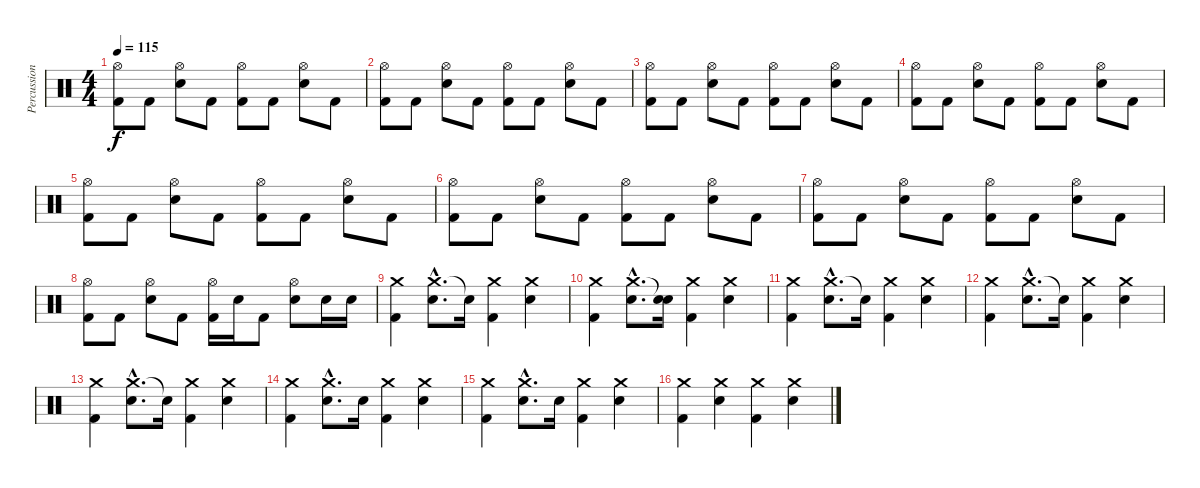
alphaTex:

\track ("Percussions" "Percussion") {instrument percussion}
\staff {score}
\articulation defaults
\ts (4 4)
\tempo 115
\clef neutral
\ks c
("Hi-Hat (open)" "Kick (hit) 2").8{dy f} "Kick (hit) 2".8 ("Hi-Hat (open)" "Electric Snare (hit)").8 "Kick (hit) 2".8 ("Hi-Hat (open)" "Kick (hit) 2").8 "Kick (hit) 2".8 ("Hi-Hat (open)" "Electric Snare (hit)").8 "Kick (hit) 2".8 |
("Hi-Hat (open)" "Kick (hit) 2").8 "Kick (hit) 2".8 ("Hi-Hat (open)" "Electric Snare (hit)").8 "Kick (hit) 2".8 ("Hi-Hat (open)" "Kick (hit) 2").8 "Kick (hit) 2".8 ("Hi-Hat (open)" "Electric Snare (hit)").8 "Kick (hit) 2".8 |
("Hi-Hat (open)" "Kick (hit) 2").8 "Kick (hit) 2".8 ("Hi-Hat (open)" "Electric Snare (hit)").8 "Kick (hit) 2".8 ("Hi-Hat (open)" "Kick (hit) 2").8 "Kick (hit) 2".8 ("Hi-Hat (open)" "Electric Snare (hit)").8 "Kick (hit) 2".8 |
("Hi-Hat (open)" "Kick (hit) 2").8 "Kick (hit) 2".8 ("Hi-Hat (open)" "Electric Snare (hit)").8 "Kick (hit) 2".8 ("Hi-Hat (open)" "Kick (hit) 2").8 "Kick (hit) 2".8 ("Hi-Hat (open)" "Electric Snare (hit)").8 "Kick (hit) 2".8 |
("Hi-Hat (open)" "Kick (hit) 2").8 "Kick (hit) 2".8 ("Hi-Hat (open)" "Electric Snare (hit)").8 "Kick (hit) 2".8 ("Hi-Hat (open)" "Kick (hit) 2").8 "Kick (hit) 2".8 ("Hi-Hat (open)" "Electric Snare (hit)").8 "Kick (hit) 2".8 |
("Hi-Hat (open)" "Kick (hit) 2").8 "Kick (hit) 2".8 ("Hi-Hat (open)" "Electric Snare (hit)").8 "Kick (hit) 2".8 ("Hi-Hat (open)" "Kick (hit) 2").8 "Kick (hit) 2".8 ("Hi-Hat (open)" "Electric Snare (hit)").8 "Kick (hit) 2".8 |
("Hi-Hat (open)" "Kick (hit) 2").8 "Kick (hit) 2".8 ("Hi-Hat (open)" "Electric Snare (hit)").8 "Kick (hit) 2".8 ("Hi-Hat (open)" "Kick (hit) 2").8 "Kick (hit) 2".8 ("Hi-Hat (open)" "Electric Snare (hit)").8 "Kick (hit) 2".8 |
("Hi-Hat (open)" "Kick (hit) 2").8 "Kick (hit) 2".8 ("Hi-Hat (open)" "Electric Snare (hit)").8 "Kick (hit) 2".8 ("Hi-Hat (open)" "Kick (hit) 2").16 "Electric Snare (hit)".16 "Kick (hit) 2".8 ("Hi-Hat (open)" "Electric Snare (hit)").8 "Electric Snare (hit)".16 "Electric Snare (hit)".16 |
("Crash medium (hit)" "Kick (hit) 2").4 ("Crash medium (hit)"{hac} "Electric Snare (hit)"{hac}).8{d} "Electric Snare (hit)"{t}.16 ("Crash medium (hit)" "Kick (hit) 2").4 ("Crash medium (hit)" "Electric Snare (hit)").4 |
("Crash medium (hit)" "Kick (hit) 2").4 ("Crash medium (hit)"{hac} "Electric Snare (hit)"{hac}).8{d} ("Snare (hit)"{t} "Electric Snare (hit)").16 ("Crash medium (hit)" "Kick (hit) 2").4 ("Crash medium (hit)" "Electric Snare (hit)").4 |
("Crash medium (hit)" "Kick (hit) 2").4 ("Crash medium (hit)"{hac} "Electric Snare (hit)"{hac}).8{d} "Electric Snare (hit)"{t}.16 ("Crash medium (hit)" "Kick (hit) 2").4 ("Crash medium (hit)" "Electric Snare (hit)").4 |
("Crash medium (hit)" "Kick (hit) 2").4 ("Crash medium (hit)"{hac} "Electric Snare (hit)"{hac}).8{d} "Electric Snare (hit)"{t}.16 ("Crash medium (hit)" "Kick (hit) 2").4 ("Crash medium (hit)" "Electric Snare (hit)").4 |
("Crash medium (hit)" "Kick (hit) 2").4 ("Crash medium (hit)"{hac} "Electric Snare (hit)"{hac}).8{d} "Electric Snare (hit)"{t}.16 ("Crash medium (hit)" "Kick (hit) 2").4 ("Crash medium (hit)" "Electric Snare (hit)").4 |
("Crash medium (hit)" "Kick (hit) 2").4 ("Crash medium (hit)"{hac} "Electric Snare (hit)"{hac}).8{d} "Electric Snare (hit)".16 ("Crash medium (hit)" "Kick (hit) 2").4 ("Crash medium (hit)" "Electric Snare (hit)").4 |
("Crash medium (hit)" "Kick (hit) 2").4 ("Crash medium (hit)"{hac} "Electric Snare (hit)"{hac}).8{d} "Electric Snare (hit)".16 ("Crash medium (hit)" "Kick (hit) 2").4 ("Crash medium (hit)" "Electric Snare (hit)").4 |
("Crash medium (hit)" "Kick (hit) 2").4 ("Crash medium (hit)" "Electric Snare (hit)").4 ("Crash medium (hit)" "Kick (hit) 2").4 ("Crash medium (hit)" "Electric Snare (hit)").4
